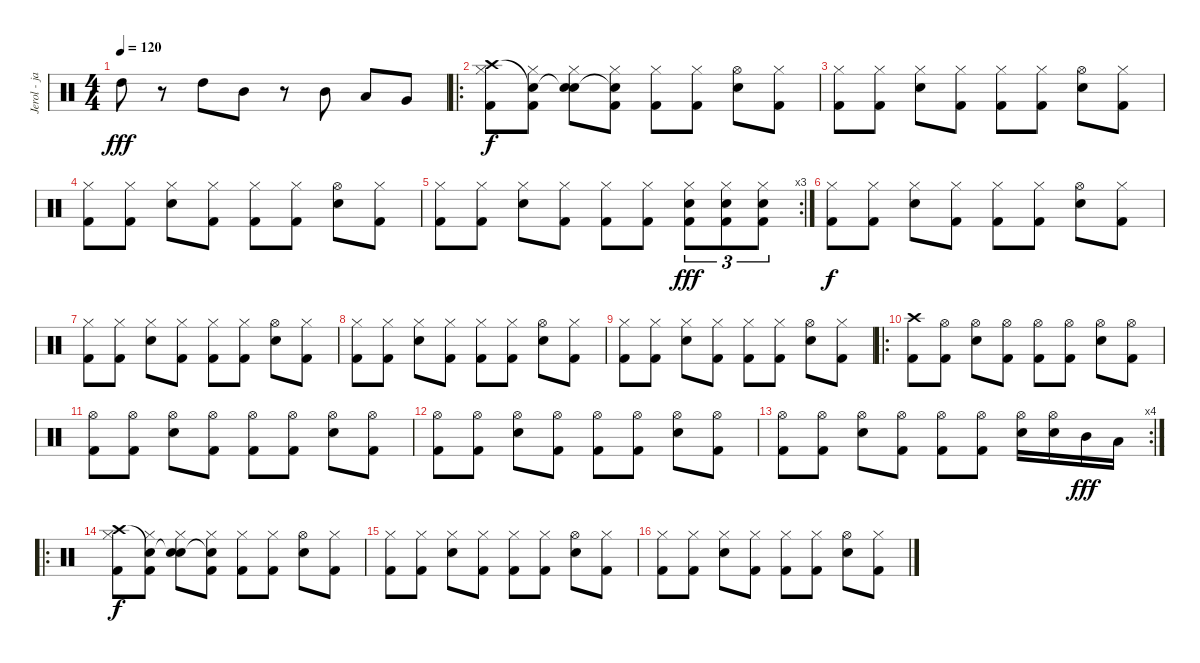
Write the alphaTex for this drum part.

\track ("Jerol - jazm." "Jerol - ja") {instrument percussion}
\staff {score}
\articulation defaults
\ts (4 4)
\tempo 120
\clef neutral
\ks c "High Tom (hit)".8{dy fff}
r.8 "High Tom (hit)".8 "Mid Tom (hit)".8 r.8 "Mid Tom (hit)".8 "Low Tom (hit)".8 "Very Low Tom (hit)".8 |
\ro
("Crash high (hit)" "Hi-Hat (closed)" "Kick (hit) 2").8{dy f} ("Snare (hit)"{t} "Hi-Hat (closed)" "Kick (hit) 2").8 ("Snare (hit)"{t} "Hi-Hat (closed)" "Snare (hit) 2").8 ("Snare (hit)"{t} "Hi-Hat (closed)" "Kick (hit) 2").8 ("Hi-Hat (closed)" "Kick (hit) 2").8 ("Hi-Hat (closed)" "Kick (hit) 2").8 ("Hi-Hat (open)" "Snare (hit) 2").8 ("Hi-Hat (closed)" "Kick (hit) 2").8 |
("Hi-Hat (closed)" "Kick (hit) 2").8 ("Hi-Hat (closed)" "Kick (hit) 2").8 ("Hi-Hat (closed)" "Snare (hit) 2").8 ("Hi-Hat (closed)" "Kick (hit) 2").8 ("Hi-Hat (closed)" "Kick (hit) 2").8 ("Hi-Hat (closed)" "Kick (hit) 2").8 ("Hi-Hat (open)" "Snare (hit) 2").8 ("Hi-Hat (closed)" "Kick (hit) 2").8 |
("Hi-Hat (closed)" "Kick (hit) 2").8 ("Hi-Hat (closed)" "Kick (hit) 2").8 ("Hi-Hat (closed)" "Snare (hit) 2").8 ("Hi-Hat (closed)" "Kick (hit) 2").8 ("Hi-Hat (closed)" "Kick (hit) 2").8 ("Hi-Hat (closed)" "Kick (hit) 2").8 ("Hi-Hat (open)" "Snare (hit) 2").8 ("Hi-Hat (closed)" "Kick (hit) 2").8 |
\rc 3
("Hi-Hat (closed)" "Kick (hit) 2").8 ("Hi-Hat (closed)" "Kick (hit) 2").8 ("Hi-Hat (closed)" "Snare (hit) 2").8 ("Hi-Hat (closed)" "Kick (hit) 2").8 ("Hi-Hat (closed)" "Kick (hit) 2").8 ("Hi-Hat (closed)" "Kick (hit) 2").8 ("Kick (hit) 2" "Hi-Hat (closed)" "Electric Snare (hit)").8{tu (3 2) dy fff} ("Kick (hit) 2" "Hi-Hat (closed)" "Electric Snare (hit)").8{tu (3 2)} ("Kick (hit) 2" "Hi-Hat (closed)" "Electric Snare (hit)").8{tu (3 2)} |
("Hi-Hat (closed)" "Kick (hit) 2").8{dy f} ("Hi-Hat (closed)" "Kick (hit) 2").8 ("Hi-Hat (closed)" "Snare (hit) 2").8 ("Hi-Hat (closed)" "Kick (hit) 2").8 ("Hi-Hat (closed)" "Kick (hit) 2").8 ("Hi-Hat (closed)" "Kick (hit) 2").8 ("Hi-Hat (open)" "Snare (hit) 2").8 ("Hi-Hat (closed)" "Kick (hit) 2").8 |
("Hi-Hat (closed)" "Kick (hit) 2").8 ("Hi-Hat (closed)" "Kick (hit) 2").8 ("Hi-Hat (closed)" "Snare (hit) 2").8 ("Hi-Hat (closed)" "Kick (hit) 2").8 ("Hi-Hat (closed)" "Kick (hit) 2").8 ("Hi-Hat (closed)" "Kick (hit) 2").8 ("Hi-Hat (open)" "Snare (hit) 2").8 ("Hi-Hat (closed)" "Kick (hit) 2").8 |
("Hi-Hat (closed)" "Kick (hit) 2").8 ("Hi-Hat (closed)" "Kick (hit) 2").8 ("Hi-Hat (closed)" "Snare (hit) 2").8 ("Hi-Hat (closed)" "Kick (hit) 2").8 ("Hi-Hat (closed)" "Kick (hit) 2").8 ("Hi-Hat (closed)" "Kick (hit) 2").8 ("Hi-Hat (open)" "Snare (hit) 2").8 ("Hi-Hat (closed)" "Kick (hit) 2").8 |
("Hi-Hat (closed)" "Kick (hit) 2").8 ("Hi-Hat (closed)" "Kick (hit) 2").8 ("Hi-Hat (closed)" "Snare (hit) 2").8 ("Hi-Hat (closed)" "Kick (hit) 2").8 ("Hi-Hat (closed)" "Kick (hit) 2").8 ("Hi-Hat (closed)" "Kick (hit) 2").8 ("Hi-Hat (open)" "Snare (hit) 2").8 ("Hi-Hat (closed)" "Kick (hit) 2").8 |
\ro
("Crash high (hit)" "Kick (hit) 2").8 ("Hi-Hat (open)" "Kick (hit) 2").8 ("Hi-Hat (open)" "Snare (hit) 2").8 ("Hi-Hat (open)" "Kick (hit) 2").8 ("Hi-Hat (open)" "Kick (hit) 2").8 ("Hi-Hat (open)" "Kick (hit) 2").8 ("Hi-Hat (open)" "Snare (hit) 2").8 ("Hi-Hat (open)" "Kick (hit) 2").8 |
("Hi-Hat (open)" "Kick (hit) 2").8 ("Hi-Hat (open)" "Kick (hit) 2").8 ("Hi-Hat (open)" "Snare (hit) 2").8 ("Hi-Hat (open)" "Kick (hit) 2").8 ("Hi-Hat (open)" "Kick (hit) 2").8 ("Hi-Hat (open)" "Kick (hit) 2").8 ("Hi-Hat (open)" "Snare (hit) 2").8 ("Hi-Hat (open)" "Kick (hit) 2").8 |
("Hi-Hat (open)" "Kick (hit) 2").8 ("Hi-Hat (open)" "Kick (hit) 2").8 ("Hi-Hat (open)" "Snare (hit) 2").8 ("Hi-Hat (open)" "Kick (hit) 2").8 ("Hi-Hat (open)" "Kick (hit) 2").8 ("Hi-Hat (open)" "Kick (hit) 2").8 ("Hi-Hat (open)" "Snare (hit) 2").8 ("Hi-Hat (open)" "Kick (hit) 2").8 |
\rc 4
("Hi-Hat (open)" "Kick (hit) 2").8 ("Hi-Hat (open)" "Kick (hit) 2").8 ("Hi-Hat (open)" "Snare (hit) 2").8 ("Hi-Hat (open)" "Kick (hit) 2").8 ("Hi-Hat (open)" "Kick (hit) 2").8 ("Hi-Hat (open)" "Kick (hit) 2").8 ("Hi-Hat (open)" "Snare (hit) 2").16 ("Hi-Hat (open)" "Snare (hit) 2").16 "Mid Tom (hit)".16{dy fff} "Low Tom (hit)".16 |
\ro
("Crash high (hit)" "Hi-Hat (closed)" "Kick (hit) 2").8{dy f} ("Snare (hit)"{t} "Hi-Hat (closed)" "Kick (hit) 2").8 ("Snare (hit)"{t} "Hi-Hat (closed)" "Snare (hit) 2").8 ("Snare (hit)"{t} "Hi-Hat (closed)" "Kick (hit) 2").8 ("Hi-Hat (closed)" "Kick (hit) 2").8 ("Hi-Hat (closed)" "Kick (hit) 2").8 ("Hi-Hat (open)" "Snare (hit) 2").8 ("Hi-Hat (closed)" "Kick (hit) 2").8 |
("Hi-Hat (closed)" "Kick (hit) 2").8 ("Hi-Hat (closed)" "Kick (hit) 2").8 ("Hi-Hat (closed)" "Snare (hit) 2").8 ("Hi-Hat (closed)" "Kick (hit) 2").8 ("Hi-Hat (closed)" "Kick (hit) 2").8 ("Hi-Hat (closed)" "Kick (hit) 2").8 ("Hi-Hat (open)" "Snare (hit) 2").8 ("Hi-Hat (closed)" "Kick (hit) 2").8 |
("Hi-Hat (closed)" "Kick (hit) 2").8 ("Hi-Hat (closed)" "Kick (hit) 2").8 ("Hi-Hat (closed)" "Snare (hit) 2").8 ("Hi-Hat (closed)" "Kick (hit) 2").8 ("Hi-Hat (closed)" "Kick (hit) 2").8 ("Hi-Hat (closed)" "Kick (hit) 2").8 ("Hi-Hat (open)" "Snare (hit) 2").8 ("Hi-Hat (closed)" "Kick (hit) 2").8
